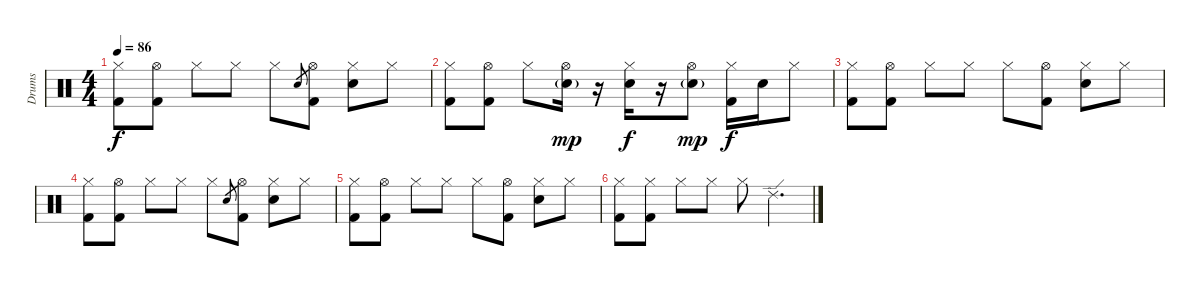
\track ("Drums" "Drums") {instrument percussion}
\staff {score}
\articulation defaults
\ts (4 4)
\tempo 86
\clef neutral
\ks aminor
("Hi-Hat (closed)" "Kick (hit) 2").8{dy f} ("Hi-Hat (open)" "Kick (hit) 2").8 "Hi-Hat (closed)".8 "Hi-Hat (closed)".8 "Hi-Hat (closed)".8 "Snare (hit) 2".8{gr} ("Hi-Hat (open)" "Kick (hit) 2").8 ("Hi-Hat (closed)" "Snare (hit) 2").8 "Hi-Hat (closed)".8 |
("Hi-Hat (closed)" "Kick (hit) 2").8 ("Hi-Hat (open)" "Kick (hit) 2").8 "Hi-Hat (closed)".8 ("Hi-Hat (open)" "Snare (hit) 2"{g}).16{dy mp} r.16 ("Hi-Hat (closed)" "Snare (hit) 2").16{dy f} r.16 ("Hi-Hat (open)" "Snare (hit) 2"{g}).8{dy mp} ("Hi-Hat (closed)" "Kick (hit) 2").16{dy f} "Snare (hit) 2".16 "Hi-Hat (closed)".8 |
("Hi-Hat (closed)" "Kick (hit) 2").8 ("Hi-Hat (open)" "Kick (hit) 2").8 "Hi-Hat (closed)".8 "Hi-Hat (closed)".8 "Hi-Hat (closed)".8 ("Hi-Hat (open)" "Kick (hit) 2").8 ("Hi-Hat (closed)" "Snare (hit) 2").8 "Hi-Hat (closed)".8 |
("Hi-Hat (closed)" "Kick (hit) 2").8 ("Hi-Hat (open)" "Kick (hit) 2").8 "Hi-Hat (closed)".8 "Hi-Hat (closed)".8 "Hi-Hat (closed)".8 "Snare (hit) 2".8{gr} ("Hi-Hat (open)" "Kick (hit) 2").8 ("Hi-Hat (closed)" "Snare (hit) 2").8 "Hi-Hat (closed)".8 |
("Hi-Hat (closed)" "Kick (hit) 2").8 ("Hi-Hat (open)" "Kick (hit) 2").8 "Hi-Hat (closed)".8 "Hi-Hat (closed)".8 "Hi-Hat (closed)".8 ("Hi-Hat (open)" "Kick (hit) 2").8 ("Hi-Hat (closed)" "Snare (hit) 2").8 "Hi-Hat (closed)".8 |
("Hi-Hat (closed)" "Kick (hit) 2").8 ("Hi-Hat (closed)" "Kick (hit) 2").8 "Hi-Hat (closed)".8 "Hi-Hat (closed)".8 "Hi-Hat (closed)".8 "Ride (edge) 2".4{d}
